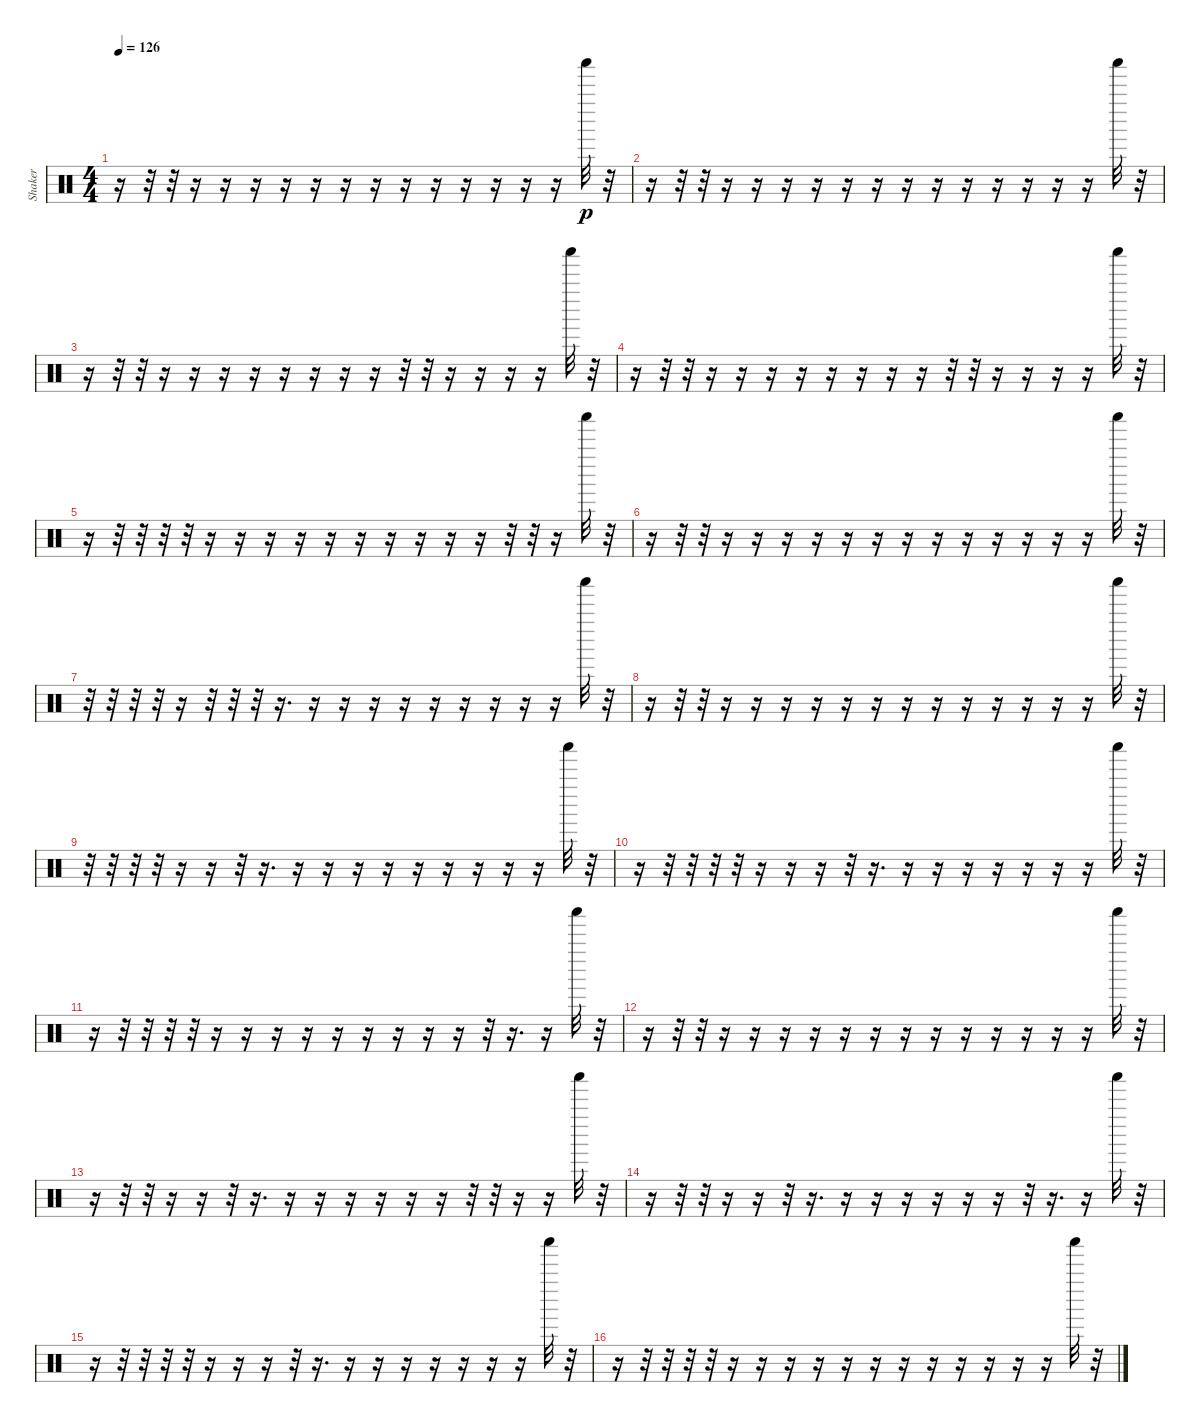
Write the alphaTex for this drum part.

\track ("Shaker" "Shaker") {instrument percussion}
\staff {score}
\articulation defaults
\ts (4 4)
\tempo 126
\clef neutral
\ks c
r.16{dy p} r.32 r.32 r.16 r.16 r.16 r.16 r.16 r.16 r.16 r.16 r.16 r.16 r.16 r.16 r.16 "Shaker (hit)".32 r.32 |
r.16 r.32 r.32 r.16 r.16 r.16 r.16 r.16 r.16 r.16 r.16 r.16 r.16 r.16 r.16 r.16 "Shaker (hit)".32 r.32 |
r.16 r.32 r.32 r.16 r.16 r.16 r.16 r.16 r.16 r.16 r.16 r.32 r.32 r.16 r.16 r.16 r.16 "Shaker (hit)".32 r.32 |
r.16 r.32 r.32 r.16 r.16 r.16 r.16 r.16 r.16 r.16 r.16 r.32 r.32 r.16 r.16 r.16 r.16 "Shaker (hit)".32 r.32 |
r.16 r.32 r.32 r.32 r.32 r.16 r.16 r.16 r.16 r.16 r.16 r.16 r.16 r.16 r.16 r.32 r.32 r.16 "Shaker (hit)".32 r.32 |
r.16 r.32 r.32 r.16 r.16 r.16 r.16 r.16 r.16 r.16 r.16 r.16 r.16 r.16 r.16 r.16 "Shaker (hit)".32 r.32 |
r.32 r.32 r.32 r.32 r.16 r.32 r.32 r.32 r.16{d} r.16 r.16 r.16 r.16 r.16 r.16 r.16 r.16 r.16 "Shaker (hit)".32 r.32 |
r.16 r.32 r.32 r.16 r.16 r.16 r.16 r.16 r.16 r.16 r.16 r.16 r.16 r.16 r.16 r.16 "Shaker (hit)".32 r.32 |
r.32 r.32 r.32 r.32 r.16 r.16 r.32 r.16{d} r.16 r.16 r.16 r.16 r.16 r.16 r.16 r.16 r.16 "Shaker (hit)".32 r.32 |
r.16 r.32 r.32 r.32 r.32 r.16 r.16 r.16 r.32 r.16{d} r.16 r.16 r.16 r.16 r.16 r.16 r.16 "Shaker (hit)".32 r.32 |
r.16 r.32 r.32 r.32 r.32 r.16 r.16 r.16 r.16 r.16 r.16 r.16 r.16 r.16 r.32 r.16{d} r.16 "Shaker (hit)".32 r.32 |
r.16 r.32 r.32 r.16 r.16 r.16 r.16 r.16 r.16 r.16 r.16 r.16 r.16 r.16 r.16 r.16 "Shaker (hit)".32 r.32 |
r.16 r.32 r.32 r.16 r.16 r.32 r.16{d} r.16 r.16 r.16 r.16 r.16 r.16 r.32 r.32 r.16 r.16 "Shaker (hit)".32 r.32 |
r.16 r.32 r.32 r.16 r.16 r.32 r.16{d} r.16 r.16 r.16 r.16 r.16 r.16 r.32 r.16{d} r.16 "Shaker (hit)".32 r.32 |
r.16 r.32 r.32 r.32 r.32 r.16 r.16 r.16 r.32 r.16{d} r.16 r.16 r.16 r.16 r.16 r.16 r.16 "Shaker (hit)".32 r.32 |
r.16 r.32 r.32 r.32 r.32 r.16 r.16 r.16 r.16 r.16 r.16 r.16 r.16 r.16 r.16 r.16 r.16 "Shaker (hit)".32 r.32
